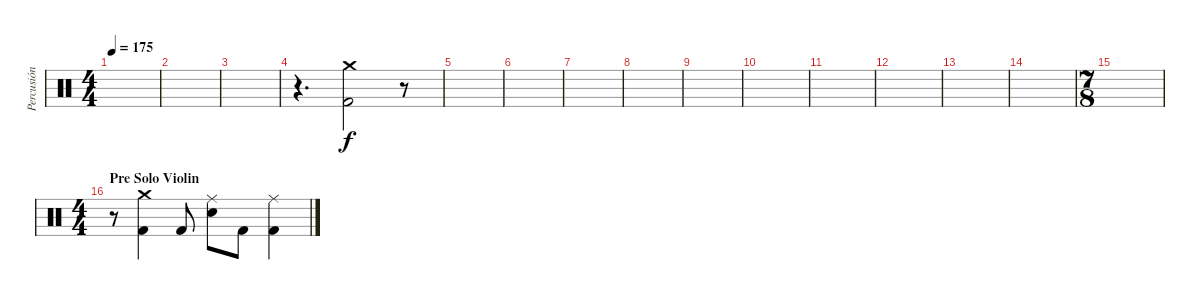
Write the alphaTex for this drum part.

\track ("Percusión" "Percusión") {instrument percussion}
\staff {score}
\articulation defaults
\ts (4 4)
\tempo 175
\clef neutral
\ks c
|
|
|
r.4{d} ("Crash medium (hit)" "Kick (hit) 2").2 r.8 |
|
|
|
|
|
|
|
|
|
|
\ts (7 8)
|
\ts (4 4)
\section ("" "Pre Solo Violin")
r.8 ("Crash medium (hit)" "Kick (hit) 2").4 "Kick (hit) 2".8 ("Snare (hit) 2" "Ride (middle)").8 "Kick (hit) 2".8 ("Ride (middle)" "Kick (hit) 2").4
